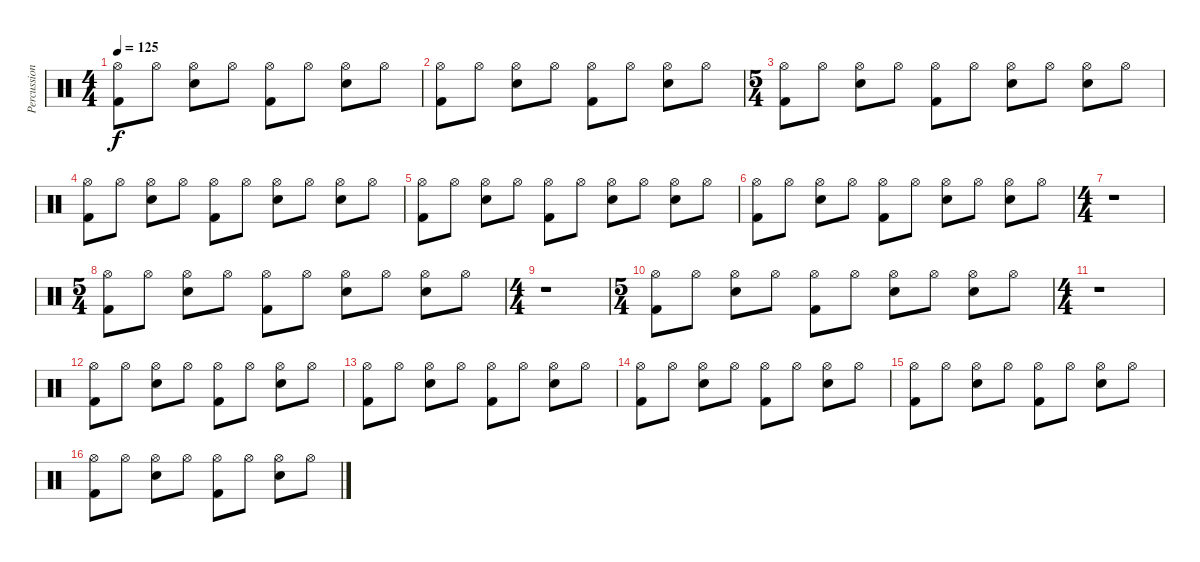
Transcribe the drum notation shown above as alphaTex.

\track ("Percussion" "Percussion") {instrument percussion}
\staff {score}
\articulation defaults
\ts (4 4)
\tempo 125
\clef neutral
\ks c
("Hi-Hat (open)" "Kick (hit) 2").8{dy f} "Hi-Hat (open)".8 ("Hi-Hat (open)" "Electric Snare (hit)").8 "Hi-Hat (open)".8 ("Hi-Hat (open)" "Kick (hit) 2").8 "Hi-Hat (open)".8 ("Hi-Hat (open)" "Electric Snare (hit)").8 "Hi-Hat (open)".8 |
("Hi-Hat (open)" "Kick (hit) 2").8 "Hi-Hat (open)".8 ("Hi-Hat (open)" "Electric Snare (hit)").8 "Hi-Hat (open)".8 ("Hi-Hat (open)" "Kick (hit) 2").8 "Hi-Hat (open)".8 ("Hi-Hat (open)" "Electric Snare (hit)").8 "Hi-Hat (open)".8 |
\ts (5 4)
("Hi-Hat (open)" "Kick (hit) 2").8 "Hi-Hat (open)".8 ("Hi-Hat (open)" "Electric Snare (hit)").8 "Hi-Hat (open)".8 ("Hi-Hat (open)" "Kick (hit) 2").8 "Hi-Hat (open)".8 ("Hi-Hat (open)" "Electric Snare (hit)").8 "Hi-Hat (open)".8 ("Hi-Hat (open)" "Electric Snare (hit)").8 "Hi-Hat (open)".8 |
("Hi-Hat (open)" "Kick (hit) 2").8 "Hi-Hat (open)".8 ("Hi-Hat (open)" "Electric Snare (hit)").8 "Hi-Hat (open)".8 ("Hi-Hat (open)" "Kick (hit) 2").8 "Hi-Hat (open)".8 ("Hi-Hat (open)" "Electric Snare (hit)").8 "Hi-Hat (open)".8 ("Hi-Hat (open)" "Electric Snare (hit)").8 "Hi-Hat (open)".8 |
("Hi-Hat (open)" "Kick (hit) 2").8 "Hi-Hat (open)".8 ("Hi-Hat (open)" "Electric Snare (hit)").8 "Hi-Hat (open)".8 ("Hi-Hat (open)" "Kick (hit) 2").8 "Hi-Hat (open)".8 ("Hi-Hat (open)" "Electric Snare (hit)").8 "Hi-Hat (open)".8 ("Hi-Hat (open)" "Electric Snare (hit)").8 "Hi-Hat (open)".8 |
("Hi-Hat (open)" "Kick (hit) 2").8 "Hi-Hat (open)".8 ("Hi-Hat (open)" "Electric Snare (hit)").8 "Hi-Hat (open)".8 ("Hi-Hat (open)" "Kick (hit) 2").8 "Hi-Hat (open)".8 ("Hi-Hat (open)" "Electric Snare (hit)").8 "Hi-Hat (open)".8 ("Hi-Hat (open)" "Electric Snare (hit)").8 "Hi-Hat (open)".8 |
\ts (4 4)
r.1 |
\ts (5 4)
("Hi-Hat (open)" "Kick (hit) 2").8 "Hi-Hat (open)".8 ("Hi-Hat (open)" "Electric Snare (hit)").8 "Hi-Hat (open)".8 ("Hi-Hat (open)" "Kick (hit) 2").8 "Hi-Hat (open)".8 ("Hi-Hat (open)" "Electric Snare (hit)").8 "Hi-Hat (open)".8 ("Hi-Hat (open)" "Electric Snare (hit)").8 "Hi-Hat (open)".8 |
\ts (4 4)
r.1 |
\ts (5 4)
("Hi-Hat (open)" "Kick (hit) 2").8 "Hi-Hat (open)".8 ("Hi-Hat (open)" "Electric Snare (hit)").8 "Hi-Hat (open)".8 ("Hi-Hat (open)" "Kick (hit) 2").8 "Hi-Hat (open)".8 ("Hi-Hat (open)" "Electric Snare (hit)").8 "Hi-Hat (open)".8 ("Hi-Hat (open)" "Electric Snare (hit)").8 "Hi-Hat (open)".8 |
\ts (4 4)
r.1 |
("Hi-Hat (open)" "Kick (hit) 2").8 "Hi-Hat (open)".8 ("Hi-Hat (open)" "Electric Snare (hit)").8 "Hi-Hat (open)".8 ("Hi-Hat (open)" "Kick (hit) 2").8 "Hi-Hat (open)".8 ("Hi-Hat (open)" "Electric Snare (hit)").8 "Hi-Hat (open)".8 |
("Hi-Hat (open)" "Kick (hit) 2").8 "Hi-Hat (open)".8 ("Hi-Hat (open)" "Electric Snare (hit)").8 "Hi-Hat (open)".8 ("Hi-Hat (open)" "Kick (hit) 2").8 "Hi-Hat (open)".8 ("Hi-Hat (open)" "Electric Snare (hit)").8 "Hi-Hat (open)".8 |
("Hi-Hat (open)" "Kick (hit) 2").8 "Hi-Hat (open)".8 ("Hi-Hat (open)" "Electric Snare (hit)").8 "Hi-Hat (open)".8 ("Hi-Hat (open)" "Kick (hit) 2").8 "Hi-Hat (open)".8 ("Hi-Hat (open)" "Electric Snare (hit)").8 "Hi-Hat (open)".8 |
("Hi-Hat (open)" "Kick (hit) 2").8 "Hi-Hat (open)".8 ("Hi-Hat (open)" "Electric Snare (hit)").8 "Hi-Hat (open)".8 ("Hi-Hat (open)" "Kick (hit) 2").8 "Hi-Hat (open)".8 ("Hi-Hat (open)" "Electric Snare (hit)").8 "Hi-Hat (open)".8 |
("Hi-Hat (open)" "Kick (hit) 2").8 "Hi-Hat (open)".8 ("Hi-Hat (open)" "Electric Snare (hit)").8 "Hi-Hat (open)".8 ("Hi-Hat (open)" "Kick (hit) 2").8 "Hi-Hat (open)".8 ("Hi-Hat (open)" "Electric Snare (hit)").8 "Hi-Hat (open)".8
